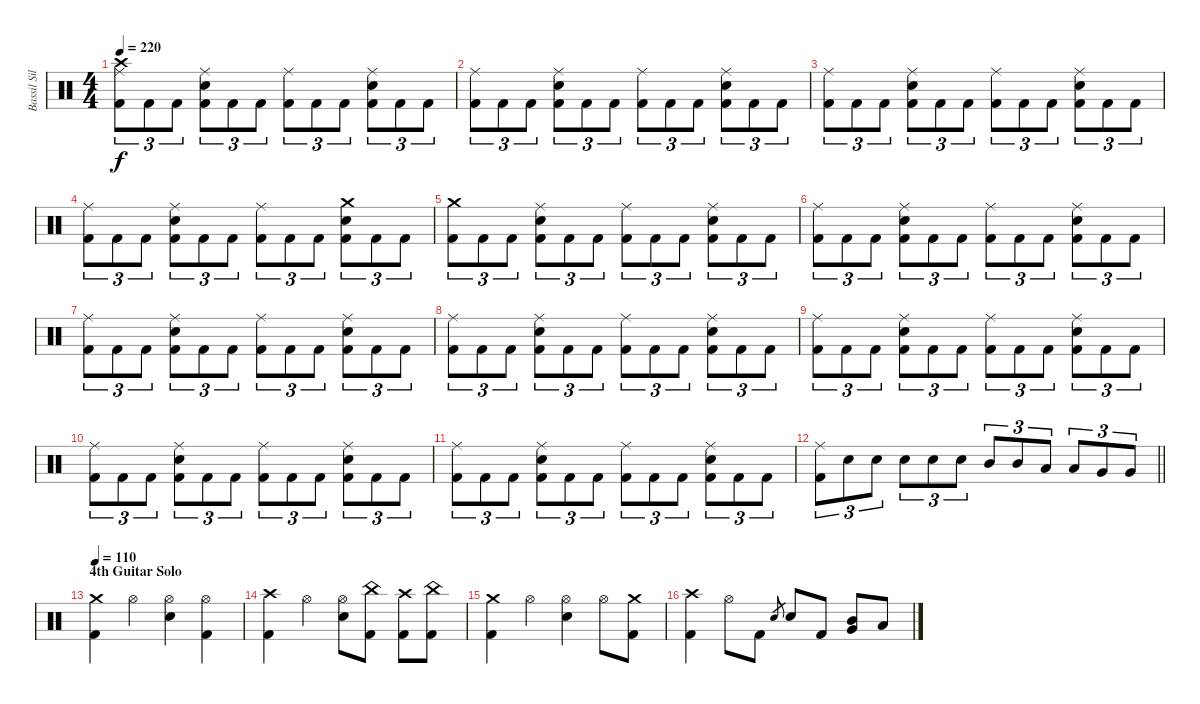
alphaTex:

\track ("Bassil Silver-Hajo" "Bassil Sil") {instrument percussion}
\staff {score}
\articulation defaults
\ts (4 4)
\tempo 220
\clef neutral
\ks c
("Crash high (hit)" "Ride (middle)" "Kick (hit) 2").8{tu (3 2) dy f} "Kick (hit) 2".8{tu (3 2)} "Kick (hit) 2".8{tu (3 2)} ("Ride (middle)" "Snare (hit) 2" "Kick (hit) 2").8{tu (3 2)} "Kick (hit) 2".8{tu (3 2)} "Kick (hit) 2".8{tu (3 2)} ("Ride (middle)" "Kick (hit) 2").8{tu (3 2)} "Kick (hit) 2".8{tu (3 2)} "Kick (hit) 2".8{tu (3 2)} ("Ride (middle)" "Snare (hit) 2" "Kick (hit) 2").8{tu (3 2)} "Kick (hit) 2".8{tu (3 2)} "Kick (hit) 2".8{tu (3 2)} |
("Ride (middle)" "Kick (hit) 2").8{tu (3 2)} "Kick (hit) 2".8{tu (3 2)} "Kick (hit) 2".8{tu (3 2)} ("Ride (middle)" "Snare (hit) 2" "Kick (hit) 2").8{tu (3 2)} "Kick (hit) 2".8{tu (3 2)} "Kick (hit) 2".8{tu (3 2)} ("Ride (middle)" "Kick (hit) 2").8{tu (3 2)} "Kick (hit) 2".8{tu (3 2)} "Kick (hit) 2".8{tu (3 2)} ("Ride (middle)" "Snare (hit) 2" "Kick (hit) 2").8{tu (3 2)} "Kick (hit) 2".8{tu (3 2)} "Kick (hit) 2".8{tu (3 2)} |
("Ride (middle)" "Kick (hit) 2").8{tu (3 2)} "Kick (hit) 2".8{tu (3 2)} "Kick (hit) 2".8{tu (3 2)} ("Ride (middle)" "Snare (hit) 2" "Kick (hit) 2").8{tu (3 2)} "Kick (hit) 2".8{tu (3 2)} "Kick (hit) 2".8{tu (3 2)} ("Ride (middle)" "Kick (hit) 2").8{tu (3 2)} "Kick (hit) 2".8{tu (3 2)} "Kick (hit) 2".8{tu (3 2)} ("Ride (middle)" "Snare (hit) 2" "Kick (hit) 2").8{tu (3 2)} "Kick (hit) 2".8{tu (3 2)} "Kick (hit) 2".8{tu (3 2)} |
("Ride (middle)" "Kick (hit) 2").8{tu (3 2)} "Kick (hit) 2".8{tu (3 2)} "Kick (hit) 2".8{tu (3 2)} ("Ride (middle)" "Snare (hit) 2" "Kick (hit) 2").8{tu (3 2)} "Kick (hit) 2".8{tu (3 2)} "Kick (hit) 2".8{tu (3 2)} ("Ride (middle)" "Kick (hit) 2").8{tu (3 2)} "Kick (hit) 2".8{tu (3 2)} "Kick (hit) 2".8{tu (3 2)} ("Crash medium (hit)" "Snare (hit) 2" "Kick (hit) 2").8{tu (3 2)} "Kick (hit) 2".8{tu (3 2)} "Kick (hit) 2".8{tu (3 2)} |
("Crash medium (hit)" "Kick (hit) 2").8{tu (3 2)} "Kick (hit) 2".8{tu (3 2)} "Kick (hit) 2".8{tu (3 2)} ("Ride (middle)" "Snare (hit) 2" "Kick (hit) 2").8{tu (3 2)} "Kick (hit) 2".8{tu (3 2)} "Kick (hit) 2".8{tu (3 2)} ("Ride (middle)" "Kick (hit) 2").8{tu (3 2)} "Kick (hit) 2".8{tu (3 2)} "Kick (hit) 2".8{tu (3 2)} ("Ride (middle)" "Snare (hit) 2" "Kick (hit) 2").8{tu (3 2)} "Kick (hit) 2".8{tu (3 2)} "Kick (hit) 2".8{tu (3 2)} |
("Ride (middle)" "Kick (hit) 2").8{tu (3 2)} "Kick (hit) 2".8{tu (3 2)} "Kick (hit) 2".8{tu (3 2)} ("Ride (middle)" "Snare (hit) 2" "Kick (hit) 2").8{tu (3 2)} "Kick (hit) 2".8{tu (3 2)} "Kick (hit) 2".8{tu (3 2)} ("Ride (middle)" "Kick (hit) 2").8{tu (3 2)} "Kick (hit) 2".8{tu (3 2)} "Kick (hit) 2".8{tu (3 2)} ("Ride (middle)" "Snare (hit) 2" "Kick (hit) 2").8{tu (3 2)} "Kick (hit) 2".8{tu (3 2)} "Kick (hit) 2".8{tu (3 2)} |
("Ride (middle)" "Kick (hit) 2").8{tu (3 2)} "Kick (hit) 2".8{tu (3 2)} "Kick (hit) 2".8{tu (3 2)} ("Ride (middle)" "Snare (hit) 2" "Kick (hit) 2").8{tu (3 2)} "Kick (hit) 2".8{tu (3 2)} "Kick (hit) 2".8{tu (3 2)} ("Ride (middle)" "Kick (hit) 2").8{tu (3 2)} "Kick (hit) 2".8{tu (3 2)} "Kick (hit) 2".8{tu (3 2)} ("Ride (middle)" "Snare (hit) 2" "Kick (hit) 2").8{tu (3 2)} "Kick (hit) 2".8{tu (3 2)} "Kick (hit) 2".8{tu (3 2)} |
("Ride (middle)" "Kick (hit) 2").8{tu (3 2)} "Kick (hit) 2".8{tu (3 2)} "Kick (hit) 2".8{tu (3 2)} ("Ride (middle)" "Snare (hit) 2" "Kick (hit) 2").8{tu (3 2)} "Kick (hit) 2".8{tu (3 2)} "Kick (hit) 2".8{tu (3 2)} ("Ride (middle)" "Kick (hit) 2").8{tu (3 2)} "Kick (hit) 2".8{tu (3 2)} "Kick (hit) 2".8{tu (3 2)} ("Ride (middle)" "Snare (hit) 2" "Kick (hit) 2").8{tu (3 2)} "Kick (hit) 2".8{tu (3 2)} "Kick (hit) 2".8{tu (3 2)} |
("Ride (middle)" "Kick (hit) 2").8{tu (3 2)} "Kick (hit) 2".8{tu (3 2)} "Kick (hit) 2".8{tu (3 2)} ("Ride (middle)" "Snare (hit) 2" "Kick (hit) 2").8{tu (3 2)} "Kick (hit) 2".8{tu (3 2)} "Kick (hit) 2".8{tu (3 2)} ("Ride (middle)" "Kick (hit) 2").8{tu (3 2)} "Kick (hit) 2".8{tu (3 2)} "Kick (hit) 2".8{tu (3 2)} ("Ride (middle)" "Snare (hit) 2" "Kick (hit) 2").8{tu (3 2)} "Kick (hit) 2".8{tu (3 2)} "Kick (hit) 2".8{tu (3 2)} |
("Ride (middle)" "Kick (hit) 2").8{tu (3 2)} "Kick (hit) 2".8{tu (3 2)} "Kick (hit) 2".8{tu (3 2)} ("Ride (middle)" "Snare (hit) 2" "Kick (hit) 2").8{tu (3 2)} "Kick (hit) 2".8{tu (3 2)} "Kick (hit) 2".8{tu (3 2)} ("Ride (middle)" "Kick (hit) 2").8{tu (3 2)} "Kick (hit) 2".8{tu (3 2)} "Kick (hit) 2".8{tu (3 2)} ("Ride (middle)" "Snare (hit) 2" "Kick (hit) 2").8{tu (3 2)} "Kick (hit) 2".8{tu (3 2)} "Kick (hit) 2".8{tu (3 2)} |
("Ride (middle)" "Kick (hit) 2").8{tu (3 2)} "Kick (hit) 2".8{tu (3 2)} "Kick (hit) 2".8{tu (3 2)} ("Ride (middle)" "Snare (hit) 2" "Kick (hit) 2").8{tu (3 2)} "Kick (hit) 2".8{tu (3 2)} "Kick (hit) 2".8{tu (3 2)} ("Ride (middle)" "Kick (hit) 2").8{tu (3 2)} "Kick (hit) 2".8{tu (3 2)} "Kick (hit) 2".8{tu (3 2)} ("Ride (middle)" "Snare (hit) 2" "Kick (hit) 2").8{tu (3 2)} "Kick (hit) 2".8{tu (3 2)} "Kick (hit) 2".8{tu (3 2)} |
\barLineRight lightlight
("Ride (middle)" "Kick (hit) 2").8{tu (3 2)} "Snare (hit) 2".8{tu (3 2)} "Snare (hit) 2".8{tu (3 2)} "Snare (hit) 2".8{tu (3 2)} "Snare (hit) 2".8{tu (3 2)} "Snare (hit) 2".8{tu (3 2)} "Mid Tom (hit)".8{tu (3 2)} "Mid Tom (hit)".8{tu (3 2)} "Low Tom (hit)".8{tu (3 2)} "Low Tom (hit)".8{tu (3 2)} "Very Low Tom (hit)".8{tu (3 2)} "Very Low Tom (hit)".8{tu (3 2)} |
\section ("" "4th Guitar Solo")
\tempo 110
("Crash medium (hit)" "Kick (hit) 2").4 "Hi-Hat (open)".4 ("Hi-Hat (open)" "Snare (hit) 2").4 ("Hi-Hat (open)" "Kick (hit) 2").4 |
("Crash high (hit)" "Kick (hit) 2").4 "Hi-Hat (open)".4 ("Hi-Hat (open)" "Snare (hit) 2").8 ("China (hit)" "Kick (hit) 2").8 ("Crash high (hit)" "Kick (hit) 2").8 ("China (hit)" "Kick (hit) 2").8 |
("Crash medium (hit)" "Kick (hit) 2").4 "Hi-Hat (open)".4 ("Hi-Hat (open)" "Snare (hit) 2").4 "Hi-Hat (open)".8 ("Crash medium (hit)" "Kick (hit) 2").8 |
("Crash high (hit)" "Kick (hit) 2").4 "Hi-Hat (open)".8 "Kick (hit) 2".8 "Snare (hit) 2".8{gr} "Snare (hit) 2".8 "Kick (hit) 2".8 ("Mid Tom (hit)" "Very Low Tom (hit)").8 "Low Floor Tom (hit)".8
